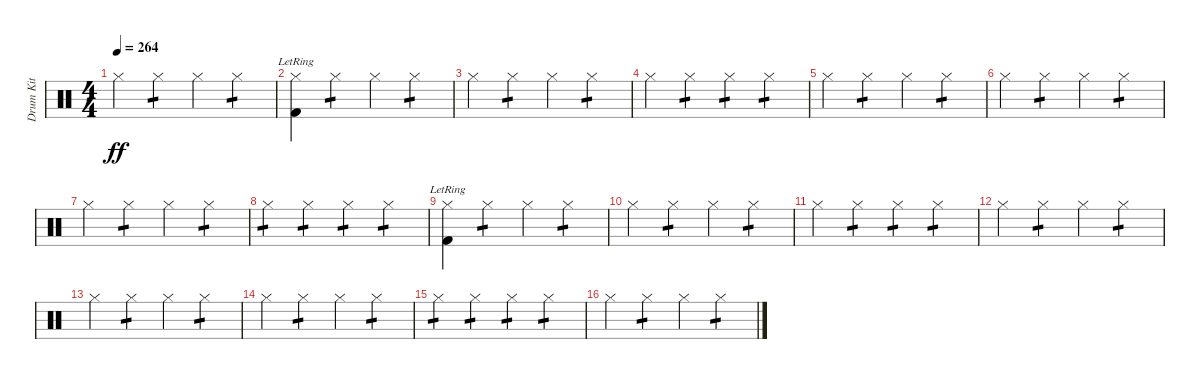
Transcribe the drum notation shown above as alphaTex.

\track ("Drum Kit" "Drum Kit") {instrument percussion}
\staff {score}
\articulation defaults
\ts (4 4)
\tempo 264
\clef neutral
\ks c "Hi-Hat (closed)".4{dy ff} "Hi-Hat (closed)".4{tp 1} "Hi-Hat (closed)".4 "Hi-Hat (closed)".4{tp 1}
|
("Hi-Hat (closed)" "Kick (hit) 2"{lr}).4 "Hi-Hat (closed)".4{tp 1} "Hi-Hat (closed)".4 "Hi-Hat (closed)".4{tp 1} |
"Hi-Hat (closed)".4 "Hi-Hat (closed)".4{tp 1} "Hi-Hat (closed)".4 "Hi-Hat (closed)".4{tp 1} |
"Hi-Hat (closed)".4 "Hi-Hat (closed)".4{tp 1} "Hi-Hat (closed)".4{tp 1} "Hi-Hat (closed)".4{tp 1} |
"Hi-Hat (closed)".4 "Hi-Hat (closed)".4{tp 1} "Hi-Hat (closed)".4 "Hi-Hat (closed)".4{tp 1} |
"Hi-Hat (closed)".4 "Hi-Hat (closed)".4{tp 1} "Hi-Hat (closed)".4 "Hi-Hat (closed)".4{tp 1} |
"Hi-Hat (closed)".4 "Hi-Hat (closed)".4{tp 1} "Hi-Hat (closed)".4 "Hi-Hat (closed)".4{tp 1} |
"Hi-Hat (closed)".4{tp 1} "Hi-Hat (closed)".4{tp 1} "Hi-Hat (closed)".4{tp 1} "Hi-Hat (closed)".4{tp 1} |
("Hi-Hat (closed)" "Kick (hit) 2"{lr}).4 "Hi-Hat (closed)".4{tp 1} "Hi-Hat (closed)".4 "Hi-Hat (closed)".4{tp 1} |
"Hi-Hat (closed)".4 "Hi-Hat (closed)".4{tp 1} "Hi-Hat (closed)".4 "Hi-Hat (closed)".4{tp 1} |
"Hi-Hat (closed)".4 "Hi-Hat (closed)".4{tp 1} "Hi-Hat (closed)".4{tp 1} "Hi-Hat (closed)".4{tp 1} |
"Hi-Hat (closed)".4 "Hi-Hat (closed)".4{tp 1} "Hi-Hat (closed)".4 "Hi-Hat (closed)".4{tp 1} |
"Hi-Hat (closed)".4 "Hi-Hat (closed)".4{tp 1} "Hi-Hat (closed)".4 "Hi-Hat (closed)".4{tp 1} |
"Hi-Hat (closed)".4 "Hi-Hat (closed)".4{tp 1} "Hi-Hat (closed)".4 "Hi-Hat (closed)".4{tp 1} |
"Hi-Hat (closed)".4{tp 1} "Hi-Hat (closed)".4{tp 1} "Hi-Hat (closed)".4{tp 1} "Hi-Hat (closed)".4{tp 1} |
"Hi-Hat (closed)".4 "Hi-Hat (closed)".4{tp 1} "Hi-Hat (closed)".4 "Hi-Hat (closed)".4{tp 1}
